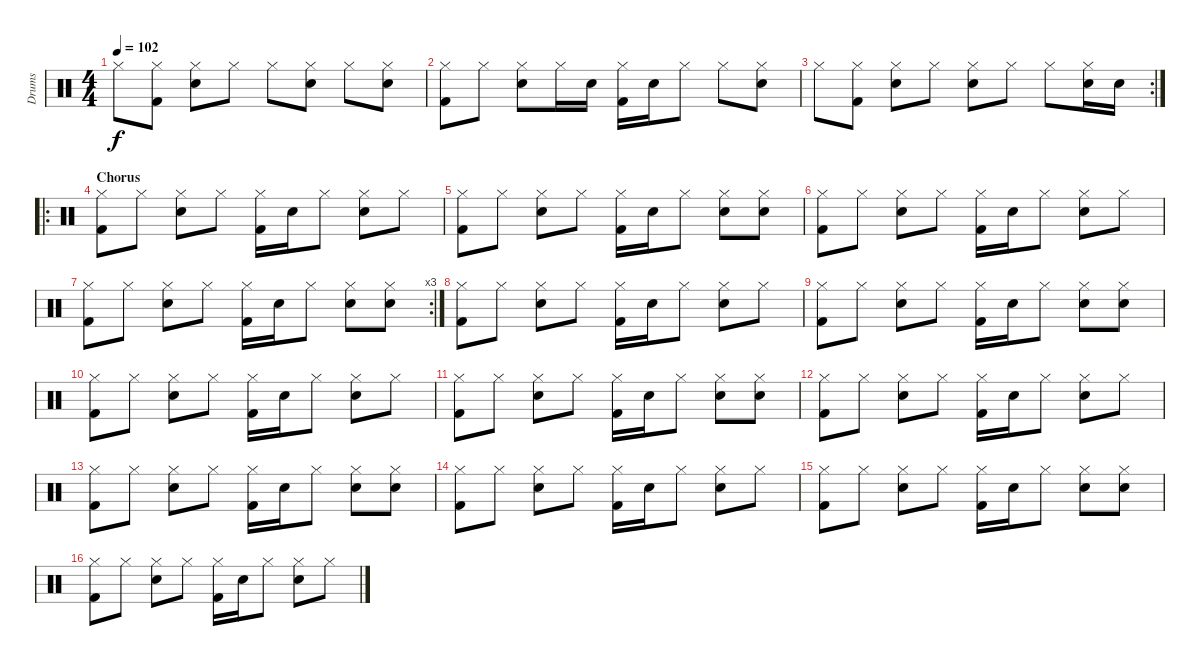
\track ("Drums" "Drums") {instrument percussion}
\staff {score}
\articulation defaults
\ts (4 4)
\tempo 102
\clef neutral
\ks c "Hi-Hat (closed)".8{dy f}
("Hi-Hat (closed)" "Kick (hit) 2").8 ("Hi-Hat (closed)" "Electric Snare (hit)").8 "Hi-Hat (closed)".8 "Hi-Hat (closed)".8 ("Hi-Hat (closed)" "Electric Snare (hit)").8 "Hi-Hat (closed)".8 ("Hi-Hat (closed)" "Electric Snare (hit)").8 |
("Hi-Hat (closed)" "Kick (hit) 2").8 "Hi-Hat (closed)".8 ("Hi-Hat (closed)" "Electric Snare (hit)").8 "Hi-Hat (closed)".16 "Electric Snare (hit)".16 ("Hi-Hat (closed)" "Kick (hit) 2").16 "Electric Snare (hit)".16 "Hi-Hat (closed)".8 "Hi-Hat (closed)".8 ("Hi-Hat (closed)" "Electric Snare (hit)").8 |
\rc 2 "Hi-Hat (closed)".8
("Hi-Hat (closed)" "Kick (hit) 2").8 ("Hi-Hat (closed)" "Electric Snare (hit)").8 "Hi-Hat (closed)".8 ("Hi-Hat (closed)" "Electric Snare (hit)").8 "Hi-Hat (closed)".8 "Hi-Hat (closed)".8 ("Hi-Hat (closed)" "Electric Snare (hit)").16 "Electric Snare (hit)".16 |
\ro
\section ("" "Chorus")
("Hi-Hat (closed)" "Kick (hit) 2").8 "Hi-Hat (closed)".8 ("Hi-Hat (closed)" "Electric Snare (hit)").8 "Hi-Hat (closed)".8 ("Hi-Hat (closed)" "Kick (hit) 2").16 "Electric Snare (hit)".16 "Hi-Hat (closed)".8 ("Hi-Hat (closed)" "Electric Snare (hit)").8 "Hi-Hat (closed)".8 |
("Hi-Hat (closed)" "Kick (hit) 2").8 "Hi-Hat (closed)".8 ("Hi-Hat (closed)" "Electric Snare (hit)").8 "Hi-Hat (closed)".8 ("Hi-Hat (closed)" "Kick (hit) 2").16 "Electric Snare (hit)".16 "Hi-Hat (closed)".8 ("Hi-Hat (closed)" "Electric Snare (hit)").8 ("Hi-Hat (closed)" "Electric Snare (hit)").8 |
("Hi-Hat (closed)" "Kick (hit) 2").8 "Hi-Hat (closed)".8 ("Hi-Hat (closed)" "Electric Snare (hit)").8 "Hi-Hat (closed)".8 ("Hi-Hat (closed)" "Kick (hit) 2").16 "Electric Snare (hit)".16 "Hi-Hat (closed)".8 ("Hi-Hat (closed)" "Electric Snare (hit)").8 "Hi-Hat (closed)".8 |
\rc 3
("Hi-Hat (closed)" "Kick (hit) 2").8 "Hi-Hat (closed)".8 ("Hi-Hat (closed)" "Electric Snare (hit)").8 "Hi-Hat (closed)".8 ("Hi-Hat (closed)" "Kick (hit) 2").16 "Electric Snare (hit)".16 "Hi-Hat (closed)".8 ("Hi-Hat (closed)" "Electric Snare (hit)").8 ("Hi-Hat (closed)" "Electric Snare (hit)").8 |
("Hi-Hat (closed)" "Kick (hit) 2").8 "Hi-Hat (closed)".8 ("Hi-Hat (closed)" "Electric Snare (hit)").8 "Hi-Hat (closed)".8 ("Hi-Hat (closed)" "Kick (hit) 2").16 "Electric Snare (hit)".16 "Hi-Hat (closed)".8 ("Hi-Hat (closed)" "Electric Snare (hit)").8 "Hi-Hat (closed)".8 |
("Hi-Hat (closed)" "Kick (hit) 2").8 "Hi-Hat (closed)".8 ("Hi-Hat (closed)" "Electric Snare (hit)").8 "Hi-Hat (closed)".8 ("Hi-Hat (closed)" "Kick (hit) 2").16 "Electric Snare (hit)".16 "Hi-Hat (closed)".8 ("Hi-Hat (closed)" "Electric Snare (hit)").8 ("Hi-Hat (closed)" "Electric Snare (hit)").8 |
("Hi-Hat (closed)" "Kick (hit) 2").8{volume 11} "Hi-Hat (closed)".8 ("Hi-Hat (closed)" "Electric Snare (hit)").8 "Hi-Hat (closed)".8 ("Hi-Hat (closed)" "Kick (hit) 2").16 "Electric Snare (hit)".16 "Hi-Hat (closed)".8 ("Hi-Hat (closed)" "Electric Snare (hit)").8 "Hi-Hat (closed)".8 |
("Hi-Hat (closed)" "Kick (hit) 2").8 "Hi-Hat (closed)".8 ("Hi-Hat (closed)" "Electric Snare (hit)").8 "Hi-Hat (closed)".8 ("Hi-Hat (closed)" "Kick (hit) 2").16 "Electric Snare (hit)".16 "Hi-Hat (closed)".8 ("Hi-Hat (closed)" "Electric Snare (hit)").8 ("Hi-Hat (closed)" "Electric Snare (hit)").8 |
("Hi-Hat (closed)" "Kick (hit) 2").8{volume 8} "Hi-Hat (closed)".8 ("Hi-Hat (closed)" "Electric Snare (hit)").8 "Hi-Hat (closed)".8 ("Hi-Hat (closed)" "Kick (hit) 2").16 "Electric Snare (hit)".16 "Hi-Hat (closed)".8 ("Hi-Hat (closed)" "Electric Snare (hit)").8 "Hi-Hat (closed)".8 |
("Hi-Hat (closed)" "Kick (hit) 2").8 "Hi-Hat (closed)".8 ("Hi-Hat (closed)" "Electric Snare (hit)").8 "Hi-Hat (closed)".8 ("Hi-Hat (closed)" "Kick (hit) 2").16 "Electric Snare (hit)".16 "Hi-Hat (closed)".8 ("Hi-Hat (closed)" "Electric Snare (hit)").8 ("Hi-Hat (closed)" "Electric Snare (hit)").8 |
("Hi-Hat (closed)" "Kick (hit) 2").8{volume 5} "Hi-Hat (closed)".8 ("Hi-Hat (closed)" "Electric Snare (hit)").8 "Hi-Hat (closed)".8 ("Hi-Hat (closed)" "Kick (hit) 2").16 "Electric Snare (hit)".16 "Hi-Hat (closed)".8 ("Hi-Hat (closed)" "Electric Snare (hit)").8 "Hi-Hat (closed)".8 |
("Hi-Hat (closed)" "Kick (hit) 2").8 "Hi-Hat (closed)".8 ("Hi-Hat (closed)" "Electric Snare (hit)").8 "Hi-Hat (closed)".8 ("Hi-Hat (closed)" "Kick (hit) 2").16 "Electric Snare (hit)".16 "Hi-Hat (closed)".8 ("Hi-Hat (closed)" "Electric Snare (hit)").8 ("Hi-Hat (closed)" "Electric Snare (hit)").8 |
("Hi-Hat (closed)" "Kick (hit) 2").8{volume 1} "Hi-Hat (closed)".8 ("Hi-Hat (closed)" "Electric Snare (hit)").8 "Hi-Hat (closed)".8 ("Hi-Hat (closed)" "Kick (hit) 2").16 "Electric Snare (hit)".16 "Hi-Hat (closed)".8 ("Hi-Hat (closed)" "Electric Snare (hit)").8 "Hi-Hat (closed)".8
